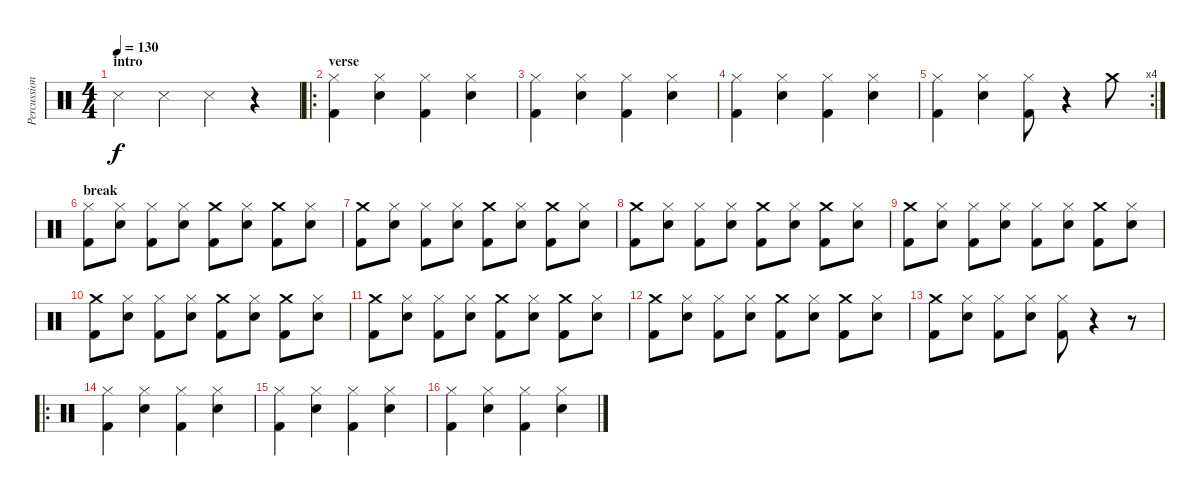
\track ("Percussion" "Percussion") {instrument percussion}
\staff {score}
\articulation defaults
\ts (4 4)
\section ("" "intro")
\tempo 130
\clef neutral
\ks c "Snare (side stick) 3".4{dy f} "Snare (side stick) 3".4 "Snare (side stick) 3".4
r.4 |
\ro
\section ("" "verse")
("Hi-Hat (closed)" "Kick (hit) 2").4 ("Hi-Hat (closed)" "Snare (hit) 2").4 ("Hi-Hat (closed)" "Kick (hit) 2").4 ("Hi-Hat (closed)" "Snare (hit) 2").4 |
("Hi-Hat (closed)" "Kick (hit) 2").4 ("Hi-Hat (closed)" "Snare (hit) 2").4 ("Hi-Hat (closed)" "Kick (hit) 2").4 ("Hi-Hat (closed)" "Snare (hit) 2").4 |
("Hi-Hat (closed)" "Kick (hit) 2").4 ("Hi-Hat (closed)" "Snare (hit) 2").4 ("Hi-Hat (closed)" "Kick (hit) 2").4 ("Hi-Hat (closed)" "Snare (hit) 2").4 |
\rc 4
("Hi-Hat (closed)" "Kick (hit) 2").4 ("Hi-Hat (closed)" "Snare (hit) 2").4 ("Hi-Hat (closed)" "Kick (hit) 2").8 r.4 "Crash medium (hit)".8 |
\section ("" "break")
("Hi-Hat (closed)" "Kick (hit) 2").8 ("Hi-Hat (closed)" "Snare (hit) 2").8 ("Hi-Hat (closed)" "Kick (hit) 2").8 ("Hi-Hat (closed)" "Snare (hit) 2").8 ("Crash medium (hit)" "Kick (hit) 2").8 ("Hi-Hat (closed)" "Snare (hit) 2").8 ("Crash medium (hit)" "Kick (hit) 2").8 ("Hi-Hat (closed)" "Snare (hit) 2").8 |
("Crash medium (hit)" "Kick (hit) 2").8 ("Hi-Hat (closed)" "Snare (hit) 2").8 ("Hi-Hat (closed)" "Kick (hit) 2").8 ("Hi-Hat (closed)" "Snare (hit) 2").8 ("Crash medium (hit)" "Kick (hit) 2").8 ("Hi-Hat (closed)" "Snare (hit) 2").8 ("Crash medium (hit)" "Kick (hit) 2").8 ("Hi-Hat (closed)" "Snare (hit) 2").8 |
("Crash medium (hit)" "Kick (hit) 2").8 ("Hi-Hat (closed)" "Snare (hit) 2").8 ("Hi-Hat (closed)" "Kick (hit) 2").8 ("Hi-Hat (closed)" "Snare (hit) 2").8 ("Crash medium (hit)" "Kick (hit) 2").8 ("Hi-Hat (closed)" "Snare (hit) 2").8 ("Crash medium (hit)" "Kick (hit) 2").8 ("Hi-Hat (closed)" "Snare (hit) 2").8 |
("Crash medium (hit)" "Kick (hit) 2").8 ("Hi-Hat (closed)" "Snare (hit) 2").8 ("Hi-Hat (closed)" "Kick (hit) 2").8 ("Hi-Hat (closed)" "Snare (hit) 2").8 ("Hi-Hat (closed)" "Kick (hit) 2").8 ("Hi-Hat (closed)" "Snare (hit) 2").8 ("Crash medium (hit)" "Kick (hit) 2").8 ("Hi-Hat (closed)" "Snare (hit) 2").8 |
("Crash medium (hit)" "Kick (hit) 2").8 ("Hi-Hat (closed)" "Snare (hit) 2").8 ("Hi-Hat (closed)" "Kick (hit) 2").8 ("Hi-Hat (closed)" "Snare (hit) 2").8 ("Crash medium (hit)" "Kick (hit) 2").8 ("Hi-Hat (closed)" "Snare (hit) 2").8 ("Crash medium (hit)" "Kick (hit) 2").8 ("Hi-Hat (closed)" "Snare (hit) 2").8 |
("Crash medium (hit)" "Kick (hit) 2").8 ("Hi-Hat (closed)" "Snare (hit) 2").8 ("Hi-Hat (closed)" "Kick (hit) 2").8 ("Hi-Hat (closed)" "Snare (hit) 2").8 ("Crash medium (hit)" "Kick (hit) 2").8 ("Hi-Hat (closed)" "Snare (hit) 2").8 ("Crash medium (hit)" "Kick (hit) 2").8 ("Hi-Hat (closed)" "Snare (hit) 2").8 |
("Crash medium (hit)" "Kick (hit) 2").8 ("Hi-Hat (closed)" "Snare (hit) 2").8 ("Hi-Hat (closed)" "Kick (hit) 2").8 ("Hi-Hat (closed)" "Snare (hit) 2").8 ("Crash medium (hit)" "Kick (hit) 2").8 ("Hi-Hat (closed)" "Snare (hit) 2").8 ("Crash medium (hit)" "Kick (hit) 2").8 ("Hi-Hat (closed)" "Snare (hit) 2").8 |
("Crash medium (hit)" "Kick (hit) 2").8 ("Hi-Hat (closed)" "Snare (hit) 2").8 ("Hi-Hat (closed)" "Kick (hit) 2").8 ("Hi-Hat (closed)" "Snare (hit) 2").8 ("Hi-Hat (closed)" "Kick (hit) 2").8 r.4 r.8 |
\ro
("Hi-Hat (closed)" "Kick (hit) 2").4 ("Hi-Hat (closed)" "Snare (hit) 2").4 ("Hi-Hat (closed)" "Kick (hit) 2").4 ("Hi-Hat (closed)" "Snare (hit) 2").4 |
("Hi-Hat (closed)" "Kick (hit) 2").4 ("Hi-Hat (closed)" "Snare (hit) 2").4 ("Hi-Hat (closed)" "Kick (hit) 2").4 ("Hi-Hat (closed)" "Snare (hit) 2").4 |
("Hi-Hat (closed)" "Kick (hit) 2").4 ("Hi-Hat (closed)" "Snare (hit) 2").4 ("Hi-Hat (closed)" "Kick (hit) 2").4 ("Hi-Hat (closed)" "Snare (hit) 2").4
